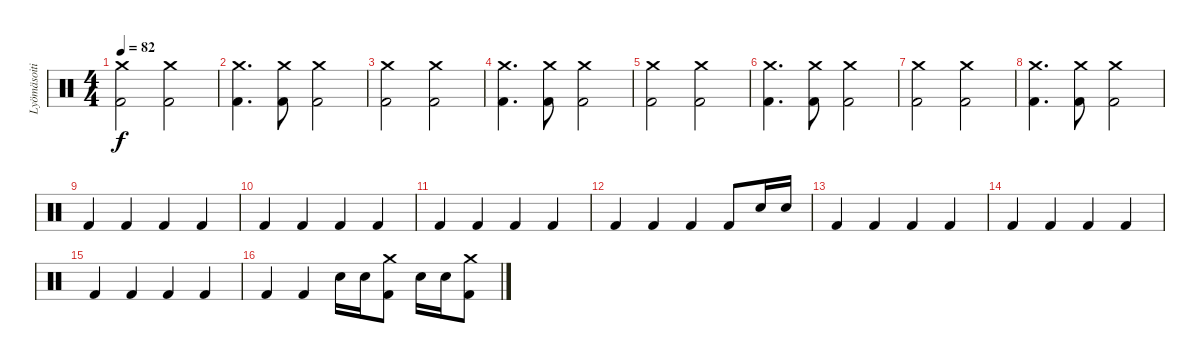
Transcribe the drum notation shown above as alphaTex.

\track ("Lyömäsoitin" "Lyömäsoiti") {instrument percussion}
\staff {score}
\articulation defaults
\ts (4 4)
\tempo 82
\clef neutral
\ks c
("Crash medium (hit)" "Kick (hit) 2").2{dy f} ("Crash medium (hit)" "Kick (hit) 2").2 |
("Crash medium (hit)" "Kick (hit) 2").4{d} ("Crash medium (hit)" "Kick (hit) 2").8 ("Crash medium (hit)" "Kick (hit) 2").2 |
("Crash medium (hit)" "Kick (hit) 2").2 ("Crash medium (hit)" "Kick (hit) 2").2 |
("Crash medium (hit)" "Kick (hit) 2").4{d} ("Crash medium (hit)" "Kick (hit) 2").8 ("Crash medium (hit)" "Kick (hit) 2").2 |
("Crash medium (hit)" "Kick (hit) 2").2 ("Crash medium (hit)" "Kick (hit) 2").2 |
("Crash medium (hit)" "Kick (hit) 2").4{d} ("Crash medium (hit)" "Kick (hit) 2").8 ("Crash medium (hit)" "Kick (hit) 2").2 |
("Crash medium (hit)" "Kick (hit) 2").2 ("Crash medium (hit)" "Kick (hit) 2").2 |
("Crash medium (hit)" "Kick (hit) 2").4{d} ("Crash medium (hit)" "Kick (hit) 2").8 ("Crash medium (hit)" "Kick (hit) 2").2 |
"Kick (hit) 2".4 "Kick (hit) 2".4 "Kick (hit) 2".4 "Kick (hit) 2".4 |
"Kick (hit) 2".4 "Kick (hit) 2".4 "Kick (hit) 2".4 "Kick (hit) 2".4 |
"Kick (hit) 2".4 "Kick (hit) 2".4 "Kick (hit) 2".4 "Kick (hit) 2".4 |
"Kick (hit) 2".4 "Kick (hit) 2".4 "Kick (hit) 2".4 "Kick (hit) 2".8 "Electric Snare (hit)".16 "Electric Snare (hit)".16 |
"Kick (hit) 2".4 "Kick (hit) 2".4 "Kick (hit) 2".4 "Kick (hit) 2".4 |
"Kick (hit) 2".4 "Kick (hit) 2".4 "Kick (hit) 2".4 "Kick (hit) 2".4 |
"Kick (hit) 2".4 "Kick (hit) 2".4 "Kick (hit) 2".4 "Kick (hit) 2".4 |
"Kick (hit) 2".4 "Kick (hit) 2".4 "Electric Snare (hit)".16 "Electric Snare (hit)".16 ("Crash medium (hit)" "Kick (hit) 2").8 "Electric Snare (hit)".16 "Electric Snare (hit)".16 ("Crash medium (hit)" "Kick (hit) 2").8
